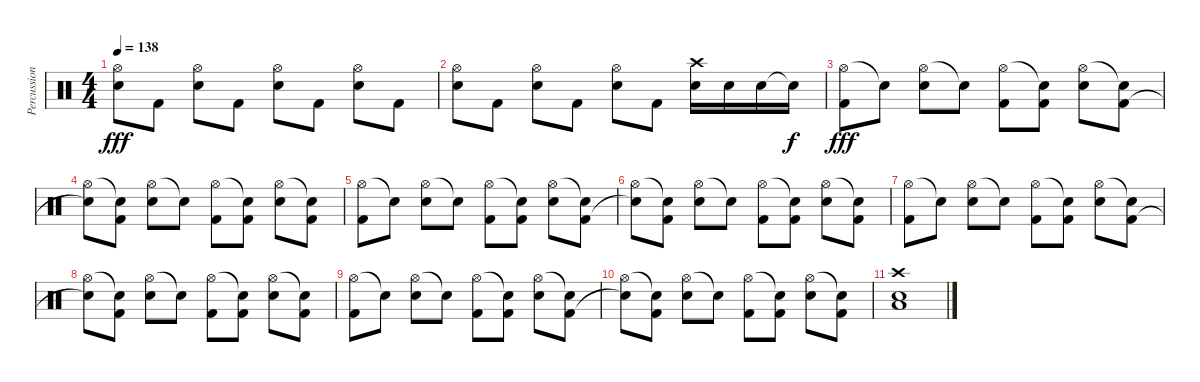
\track ("Percussion" "Percussion") {instrument percussion}
\staff {score}
\articulation defaults
\ts (4 4)
\tempo 138
\clef neutral
\ks c
("Hi-Hat (open)" "Electric Snare (hit)").8{dy fff} "Kick (hit) 2".8 ("Hi-Hat (open)" "Electric Snare (hit)").8 "Kick (hit) 2".8 ("Hi-Hat (open)" "Electric Snare (hit)").8 "Kick (hit) 2".8 ("Hi-Hat (open)" "Electric Snare (hit)").8 "Kick (hit) 2".8 |
("Hi-Hat (open)" "Electric Snare (hit)").8 "Kick (hit) 2".8 ("Hi-Hat (open)" "Electric Snare (hit)").8 "Kick (hit) 2".8 ("Hi-Hat (open)" "Electric Snare (hit)").8 "Kick (hit) 2".8 ("Crash high (hit)" "Electric Snare (hit)").16 "Electric Snare (hit)".16 "Electric Snare (hit)".16 "Snare (hit)"{t}.16{dy f} |
("Hi-Hat (open)" "Kick (hit) 2").8{dy fff} "Snare (hit)"{t}.8 ("Hi-Hat (open)" "Electric Snare (hit)").8 "Snare (hit)"{t}.8 ("Hi-Hat (open)" "Kick (hit) 2").8 ("Snare (hit)"{t} "Kick (hit) 2").8 ("Hi-Hat (open)" "Electric Snare (hit)").8 ("Snare (hit)"{t} "Kick (hit) 2").8 |
("Hi-Hat (open)" "Snare (hit)"{t}).8 ("Snare (hit)"{t} "Kick (hit) 2").8 ("Hi-Hat (open)" "Electric Snare (hit)").8 "Snare (hit)"{t}.8 ("Hi-Hat (open)" "Kick (hit) 2").8 ("Snare (hit)"{t} "Kick (hit) 2").8 ("Hi-Hat (open)" "Electric Snare (hit)").8 ("Snare (hit)"{t} "Kick (hit) 2").8 |
("Hi-Hat (open)" "Kick (hit) 2").8 "Snare (hit)"{t}.8 ("Hi-Hat (open)" "Electric Snare (hit)").8 "Snare (hit)"{t}.8 ("Hi-Hat (open)" "Kick (hit) 2").8 ("Snare (hit)"{t} "Kick (hit) 2").8 ("Hi-Hat (open)" "Electric Snare (hit)").8 ("Snare (hit)"{t} "Kick (hit) 2").8 |
("Hi-Hat (open)" "Snare (hit)"{t}).8 ("Snare (hit)"{t} "Kick (hit) 2").8 ("Hi-Hat (open)" "Electric Snare (hit)").8 "Snare (hit)"{t}.8 ("Hi-Hat (open)" "Kick (hit) 2").8 ("Snare (hit)"{t} "Kick (hit) 2").8 ("Hi-Hat (open)" "Electric Snare (hit)").8 ("Snare (hit)"{t} "Kick (hit) 2").8 |
("Hi-Hat (open)" "Kick (hit) 2").8 "Snare (hit)"{t}.8 ("Hi-Hat (open)" "Electric Snare (hit)").8 "Snare (hit)"{t}.8 ("Hi-Hat (open)" "Kick (hit) 2").8 ("Snare (hit)"{t} "Kick (hit) 2").8 ("Hi-Hat (open)" "Electric Snare (hit)").8 ("Snare (hit)"{t} "Kick (hit) 2").8 |
("Hi-Hat (open)" "Snare (hit)"{t}).8 ("Snare (hit)"{t} "Kick (hit) 2").8 ("Hi-Hat (open)" "Electric Snare (hit)").8 "Snare (hit)"{t}.8 ("Hi-Hat (open)" "Kick (hit) 2").8 ("Snare (hit)"{t} "Kick (hit) 2").8 ("Hi-Hat (open)" "Electric Snare (hit)").8 ("Snare (hit)"{t} "Kick (hit) 2").8 |
("Hi-Hat (open)" "Kick (hit) 2").8 "Snare (hit)"{t}.8 ("Hi-Hat (open)" "Electric Snare (hit)").8 "Snare (hit)"{t}.8 ("Hi-Hat (open)" "Kick (hit) 2").8 ("Snare (hit)"{t} "Kick (hit) 2").8 ("Hi-Hat (open)" "Electric Snare (hit)").8 ("Snare (hit)"{t} "Kick (hit) 2").8 |
("Hi-Hat (open)" "Snare (hit)"{t}).8 ("Snare (hit)"{t} "Kick (hit) 2").8 ("Hi-Hat (open)" "Electric Snare (hit)").8 "Snare (hit)"{t}.8 ("Hi-Hat (open)" "Kick (hit) 2").8 ("Snare (hit)"{t} "Kick (hit) 2").8 ("Hi-Hat (open)" "Electric Snare (hit)").8 ("Snare (hit)"{t} "Kick (hit) 2").8 |
("Crash high (hit)" "Low Floor Tom (hit)" "Electric Snare (hit)").1
